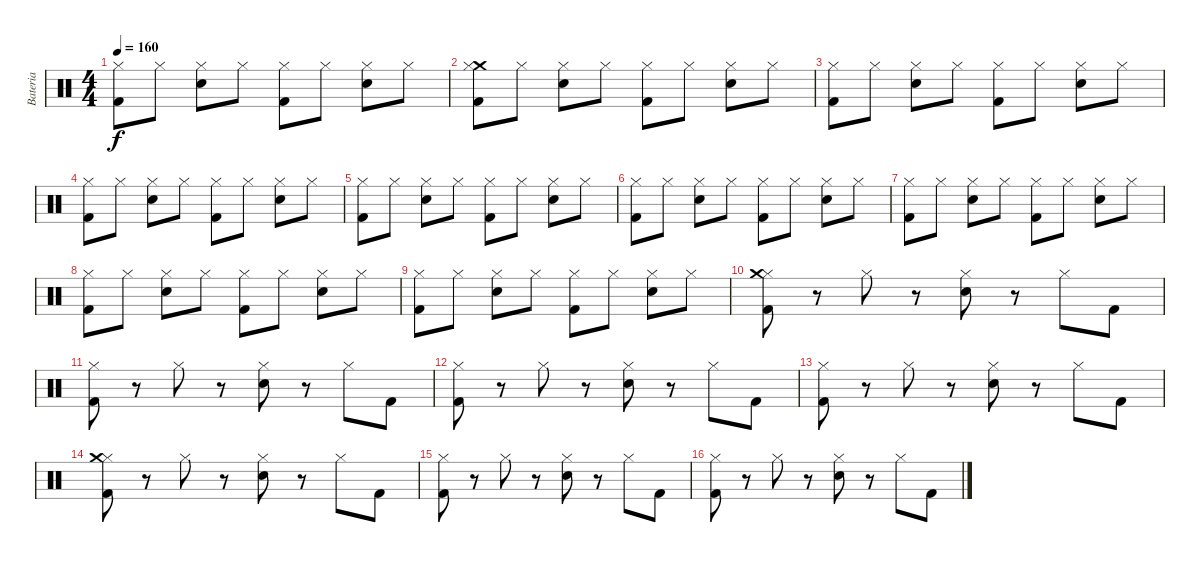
\track ("Bateria" "Bateria") {instrument percussion}
\staff {score}
\articulation defaults
\ts (4 4)
\tempo 160
\clef neutral
\ks c
("Hi-Hat (closed)" "Kick (hit) 2").8{dy f} "Hi-Hat (closed)".8 ("Hi-Hat (closed)" "Electric Snare (hit)").8 "Hi-Hat (closed)".8 ("Hi-Hat (closed)" "Kick (hit) 2").8 "Hi-Hat (closed)".8 ("Hi-Hat (closed)" "Electric Snare (hit)").8 "Hi-Hat (closed)".8 |
("Crash medium (hit)" "Hi-Hat (closed)" "Kick (hit) 2").8 "Hi-Hat (closed)".8 ("Hi-Hat (closed)" "Electric Snare (hit)").8 "Hi-Hat (closed)".8 ("Hi-Hat (closed)" "Kick (hit) 2").8 "Hi-Hat (closed)".8 ("Hi-Hat (closed)" "Electric Snare (hit)").8 "Hi-Hat (closed)".8 |
("Hi-Hat (closed)" "Kick (hit) 2").8 "Hi-Hat (closed)".8 ("Hi-Hat (closed)" "Electric Snare (hit)").8 "Hi-Hat (closed)".8 ("Hi-Hat (closed)" "Kick (hit) 2").8 "Hi-Hat (closed)".8 ("Hi-Hat (closed)" "Electric Snare (hit)").8 "Hi-Hat (closed)".8 |
("Hi-Hat (closed)" "Kick (hit) 2").8 "Hi-Hat (closed)".8 ("Hi-Hat (closed)" "Electric Snare (hit)").8 "Hi-Hat (closed)".8 ("Hi-Hat (closed)" "Kick (hit) 2").8 "Hi-Hat (closed)".8 ("Hi-Hat (closed)" "Electric Snare (hit)").8 "Hi-Hat (closed)".8 |
("Hi-Hat (closed)" "Kick (hit) 2").8 "Hi-Hat (closed)".8 ("Hi-Hat (closed)" "Electric Snare (hit)").8 "Hi-Hat (closed)".8 ("Hi-Hat (closed)" "Kick (hit) 2").8 "Hi-Hat (closed)".8 ("Hi-Hat (closed)" "Electric Snare (hit)").8 "Hi-Hat (closed)".8 |
("Hi-Hat (closed)" "Kick (hit) 2").8 "Hi-Hat (closed)".8 ("Hi-Hat (closed)" "Electric Snare (hit)").8 "Hi-Hat (closed)".8 ("Hi-Hat (closed)" "Kick (hit) 2").8 "Hi-Hat (closed)".8 ("Hi-Hat (closed)" "Electric Snare (hit)").8 "Hi-Hat (closed)".8 |
("Hi-Hat (closed)" "Kick (hit) 2").8 "Hi-Hat (closed)".8 ("Hi-Hat (closed)" "Electric Snare (hit)").8 "Hi-Hat (closed)".8 ("Hi-Hat (closed)" "Kick (hit) 2").8 "Hi-Hat (closed)".8 ("Hi-Hat (closed)" "Electric Snare (hit)").8 "Hi-Hat (closed)".8 |
("Hi-Hat (closed)" "Kick (hit) 2").8 "Hi-Hat (closed)".8 ("Hi-Hat (closed)" "Electric Snare (hit)").8 "Hi-Hat (closed)".8 ("Hi-Hat (closed)" "Kick (hit) 2").8 "Hi-Hat (closed)".8 ("Hi-Hat (closed)" "Electric Snare (hit)").8 "Hi-Hat (closed)".8 |
("Hi-Hat (closed)" "Kick (hit) 2").8 "Hi-Hat (closed)".8 ("Hi-Hat (closed)" "Electric Snare (hit)").8 "Hi-Hat (closed)".8 ("Hi-Hat (closed)" "Kick (hit) 2").8 "Hi-Hat (closed)".8 ("Hi-Hat (closed)" "Electric Snare (hit)").8 "Hi-Hat (closed)".8 |
("Hi-Hat (closed)" "Kick (hit) 2" "Crash medium (hit)").8 r.8 "Hi-Hat (closed)".8 r.8 ("Hi-Hat (closed)" "Electric Snare (hit)").8 r.8 "Hi-Hat (closed)".8 "Kick (hit) 2".8 |
("Hi-Hat (closed)" "Kick (hit) 2").8 r.8 "Hi-Hat (closed)".8 r.8 ("Hi-Hat (closed)" "Electric Snare (hit)").8 r.8 "Hi-Hat (closed)".8 "Kick (hit) 2".8 |
("Hi-Hat (closed)" "Kick (hit) 2").8 r.8 "Hi-Hat (closed)".8 r.8 ("Hi-Hat (closed)" "Electric Snare (hit)").8 r.8 "Hi-Hat (closed)".8 "Kick (hit) 2".8 |
("Hi-Hat (closed)" "Kick (hit) 2").8 r.8 "Hi-Hat (closed)".8 r.8 ("Hi-Hat (closed)" "Electric Snare (hit)").8 r.8 "Hi-Hat (closed)".8 "Kick (hit) 2".8 |
("Hi-Hat (closed)" "Kick (hit) 2" "Crash medium (hit)").8 r.8 "Hi-Hat (closed)".8 r.8 ("Hi-Hat (closed)" "Electric Snare (hit)").8 r.8 "Hi-Hat (closed)".8 "Kick (hit) 2".8 |
("Hi-Hat (closed)" "Kick (hit) 2").8 r.8 "Hi-Hat (closed)".8 r.8 ("Hi-Hat (closed)" "Electric Snare (hit)").8 r.8 "Hi-Hat (closed)".8 "Kick (hit) 2".8 |
("Hi-Hat (closed)" "Kick (hit) 2").8 r.8 "Hi-Hat (closed)".8 r.8 ("Hi-Hat (closed)" "Electric Snare (hit)").8 r.8 "Hi-Hat (closed)".8 "Kick (hit) 2".8
